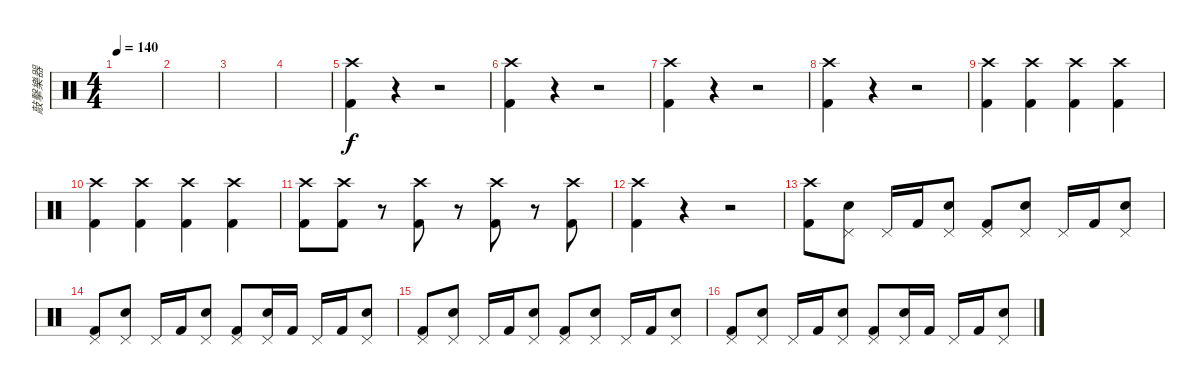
\track ("敲擊樂器" "敲擊樂器") {instrument percussion}
\staff {score}
\articulation defaults
\ts (4 4)
\tempo 140
\clef neutral
\ks c
|
|
|
|
("Crash high (hit)" "Kick (hit) 2").4 r.4 r.2 |
("Crash high (hit)" "Kick (hit) 2").4 r.4 r.2 |
("Crash high (hit)" "Kick (hit) 2").4 r.4 r.2 |
("Crash high (hit)" "Kick (hit) 2").4 r.4 r.2 |
("Crash high (hit)" "Kick (hit) 2").4 ("Crash high (hit)" "Kick (hit) 2").4 ("Crash high (hit)" "Kick (hit) 2").4 ("Crash high (hit)" "Kick (hit) 2").4 |
("Crash high (hit)" "Kick (hit) 2").4 ("Crash high (hit)" "Kick (hit) 2").4 ("Crash high (hit)" "Kick (hit) 2").4 ("Crash high (hit)" "Kick (hit) 2").4 |
("Crash high (hit)" "Kick (hit) 2").8 ("Crash high (hit)" "Kick (hit) 2").8 r.8 ("Crash high (hit)" "Kick (hit) 2").8 r.8 ("Crash high (hit)" "Kick (hit) 2").8 r.8 ("Crash high (hit)" "Kick (hit) 2").8 |
("Crash high (hit)" "Kick (hit) 2").4 r.4 r.2 |
("Crash high (hit)" "Kick (hit) 2").8 ("Pedal Hi-Hat (hit)" "Snare (hit) 2").8 "Pedal Hi-Hat (hit)".16 "Kick (hit) 2".16 ("Pedal Hi-Hat (hit)" "Snare (hit) 2").8 ("Pedal Hi-Hat (hit)" "Kick (hit) 2").8 ("Pedal Hi-Hat (hit)" "Snare (hit) 2").8 "Pedal Hi-Hat (hit)".16 "Kick (hit) 2".16 ("Pedal Hi-Hat (hit)" "Snare (hit) 2").8 |
("Pedal Hi-Hat (hit)" "Kick (hit) 2").8 ("Pedal Hi-Hat (hit)" "Snare (hit) 2").8 "Pedal Hi-Hat (hit)".16 "Kick (hit) 2".16 ("Pedal Hi-Hat (hit)" "Snare (hit) 2").8 ("Pedal Hi-Hat (hit)" "Kick (hit) 2").8 ("Pedal Hi-Hat (hit)" "Snare (hit) 2").16 "Kick (hit) 2".16 "Pedal Hi-Hat (hit)".16 "Kick (hit) 2".16 ("Pedal Hi-Hat (hit)" "Snare (hit) 2").8 |
("Pedal Hi-Hat (hit)" "Kick (hit) 2").8 ("Pedal Hi-Hat (hit)" "Snare (hit) 2").8 "Pedal Hi-Hat (hit)".16 "Kick (hit) 2".16 ("Pedal Hi-Hat (hit)" "Snare (hit) 2").8 ("Pedal Hi-Hat (hit)" "Kick (hit) 2").8 ("Pedal Hi-Hat (hit)" "Snare (hit) 2").8 "Pedal Hi-Hat (hit)".16 "Kick (hit) 2".16 ("Pedal Hi-Hat (hit)" "Snare (hit) 2").8 |
("Pedal Hi-Hat (hit)" "Kick (hit) 2").8 ("Pedal Hi-Hat (hit)" "Snare (hit) 2").8 "Pedal Hi-Hat (hit)".16 "Kick (hit) 2".16 ("Pedal Hi-Hat (hit)" "Snare (hit) 2").8 ("Pedal Hi-Hat (hit)" "Kick (hit) 2").8 ("Pedal Hi-Hat (hit)" "Snare (hit) 2").16 "Kick (hit) 2".16 "Pedal Hi-Hat (hit)".16 "Kick (hit) 2".16 ("Pedal Hi-Hat (hit)" "Snare (hit) 2").8
